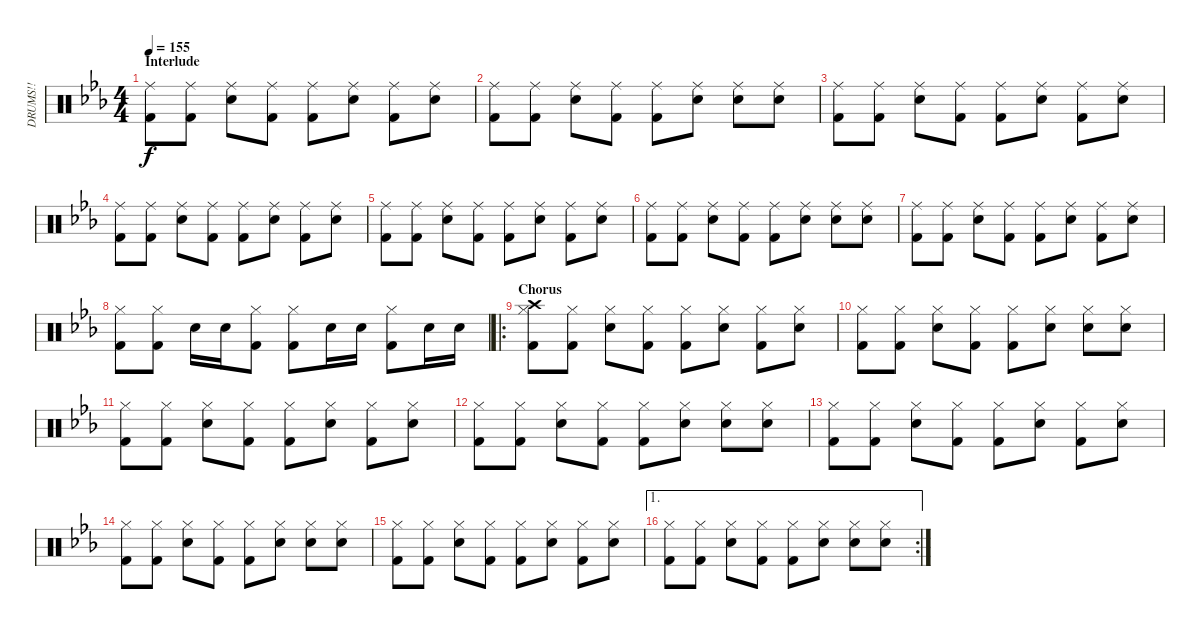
\track ("DRUMS!!" "DRUMS!!") {instrument percussion}
\staff {score}
\articulation defaults
\ts (4 4)
\section ("" "Interlude")
\tempo 155
\clef neutral
\ks cminor
("Ride (middle)" "Kick (hit) 2").8{dy f} ("Ride (middle)" "Kick (hit) 2").8 ("Ride (middle)" "Snare (hit) 2").8 ("Ride (middle)" "Kick (hit) 2").8 ("Ride (middle)" "Kick (hit) 2").8 ("Ride (middle)" "Snare (hit) 2").8 ("Ride (middle)" "Kick (hit) 2").8 ("Ride (middle)" "Snare (hit) 2").8 |
("Ride (middle)" "Kick (hit) 2").8 ("Ride (middle)" "Kick (hit) 2").8 ("Ride (middle)" "Snare (hit) 2").8 ("Ride (middle)" "Kick (hit) 2").8 ("Ride (middle)" "Kick (hit) 2").8 ("Ride (middle)" "Snare (hit) 2").8 ("Ride (middle)" "Snare (hit) 2").8 ("Ride (middle)" "Snare (hit) 2").8 |
("Ride (middle)" "Kick (hit) 2").8 ("Ride (middle)" "Kick (hit) 2").8 ("Ride (middle)" "Snare (hit) 2").8 ("Ride (middle)" "Kick (hit) 2").8 ("Ride (middle)" "Kick (hit) 2").8 ("Ride (middle)" "Snare (hit) 2").8 ("Ride (middle)" "Kick (hit) 2").8 ("Ride (middle)" "Snare (hit) 2").8 |
("Ride (middle)" "Kick (hit) 2").8 ("Ride (middle)" "Kick (hit) 2").8 ("Ride (middle)" "Snare (hit) 2").8 ("Ride (middle)" "Kick (hit) 2").8 ("Ride (middle)" "Kick (hit) 2").8 ("Ride (middle)" "Snare (hit) 2").8 ("Ride (middle)" "Kick (hit) 2").8 ("Ride (middle)" "Snare (hit) 2").8 |
("Ride (middle)" "Kick (hit) 2").8 ("Ride (middle)" "Kick (hit) 2").8 ("Ride (middle)" "Snare (hit) 2").8 ("Ride (middle)" "Kick (hit) 2").8 ("Ride (middle)" "Kick (hit) 2").8 ("Ride (middle)" "Snare (hit) 2").8 ("Ride (middle)" "Kick (hit) 2").8 ("Ride (middle)" "Snare (hit) 2").8 |
("Ride (middle)" "Kick (hit) 2").8 ("Ride (middle)" "Kick (hit) 2").8 ("Ride (middle)" "Snare (hit) 2").8 ("Ride (middle)" "Kick (hit) 2").8 ("Ride (middle)" "Kick (hit) 2").8 ("Ride (middle)" "Snare (hit) 2").8 ("Ride (middle)" "Snare (hit) 2").8 ("Ride (middle)" "Snare (hit) 2").8 |
("Ride (middle)" "Kick (hit) 2").8 ("Ride (middle)" "Kick (hit) 2").8 ("Ride (middle)" "Snare (hit) 2").8 ("Ride (middle)" "Kick (hit) 2").8 ("Ride (middle)" "Kick (hit) 2").8 ("Ride (middle)" "Snare (hit) 2").8 ("Ride (middle)" "Kick (hit) 2").8 ("Ride (middle)" "Snare (hit) 2").8 |
("Hi-Hat (closed)" "Kick (hit) 2").8 ("Hi-Hat (closed)" "Kick (hit) 2").8 "Snare (hit) 2".16 "Snare (hit) 2".16 ("Hi-Hat (closed)" "Kick (hit) 2").8 ("Hi-Hat (closed)" "Kick (hit) 2").8 "Snare (hit) 2".16 "Snare (hit) 2".16 ("Hi-Hat (closed)" "Kick (hit) 2").8 "Snare (hit) 2".16 "Snare (hit) 2".16 |
\ro
\section ("" "Chorus")
("Crash high (hit)" "Hi-Hat (closed)" "Kick (hit) 2").8 ("Hi-Hat (closed)" "Kick (hit) 2").8 ("Hi-Hat (closed)" "Snare (hit) 2").8 ("Hi-Hat (closed)" "Kick (hit) 2").8 ("Hi-Hat (closed)" "Kick (hit) 2").8 ("Hi-Hat (closed)" "Snare (hit) 2").8 ("Hi-Hat (closed)" "Kick (hit) 2").8 ("Hi-Hat (closed)" "Snare (hit) 2").8 |
("Hi-Hat (closed)" "Kick (hit) 2").8 ("Hi-Hat (closed)" "Kick (hit) 2").8 ("Hi-Hat (closed)" "Snare (hit) 2").8 ("Hi-Hat (closed)" "Kick (hit) 2").8 ("Hi-Hat (closed)" "Kick (hit) 2").8 ("Hi-Hat (closed)" "Snare (hit) 2").8 ("Hi-Hat (closed)" "Snare (hit) 2").8 ("Hi-Hat (closed)" "Snare (hit) 2").8 |
("Hi-Hat (closed)" "Kick (hit) 2").8 ("Hi-Hat (closed)" "Kick (hit) 2").8 ("Hi-Hat (closed)" "Snare (hit) 2").8 ("Hi-Hat (closed)" "Kick (hit) 2").8 ("Hi-Hat (closed)" "Kick (hit) 2").8 ("Hi-Hat (closed)" "Snare (hit) 2").8 ("Hi-Hat (closed)" "Kick (hit) 2").8 ("Hi-Hat (closed)" "Snare (hit) 2").8 |
("Hi-Hat (closed)" "Kick (hit) 2").8 ("Hi-Hat (closed)" "Kick (hit) 2").8 ("Hi-Hat (closed)" "Snare (hit) 2").8 ("Hi-Hat (closed)" "Kick (hit) 2").8 ("Hi-Hat (closed)" "Kick (hit) 2").8 ("Hi-Hat (closed)" "Snare (hit) 2").8 ("Hi-Hat (closed)" "Snare (hit) 2").8 ("Hi-Hat (closed)" "Snare (hit) 2").8 |
("Hi-Hat (closed)" "Kick (hit) 2").8 ("Hi-Hat (closed)" "Kick (hit) 2").8 ("Hi-Hat (closed)" "Snare (hit) 2").8 ("Hi-Hat (closed)" "Kick (hit) 2").8 ("Hi-Hat (closed)" "Kick (hit) 2").8 ("Hi-Hat (closed)" "Snare (hit) 2").8 ("Hi-Hat (closed)" "Kick (hit) 2").8 ("Hi-Hat (closed)" "Snare (hit) 2").8 |
("Hi-Hat (closed)" "Kick (hit) 2").8 ("Hi-Hat (closed)" "Kick (hit) 2").8 ("Hi-Hat (closed)" "Snare (hit) 2").8 ("Hi-Hat (closed)" "Kick (hit) 2").8 ("Hi-Hat (closed)" "Kick (hit) 2").8 ("Hi-Hat (closed)" "Snare (hit) 2").8 ("Hi-Hat (closed)" "Snare (hit) 2").8 ("Hi-Hat (closed)" "Snare (hit) 2").8 |
("Hi-Hat (closed)" "Kick (hit) 2").8 ("Hi-Hat (closed)" "Kick (hit) 2").8 ("Hi-Hat (closed)" "Snare (hit) 2").8 ("Hi-Hat (closed)" "Kick (hit) 2").8 ("Hi-Hat (closed)" "Kick (hit) 2").8 ("Hi-Hat (closed)" "Snare (hit) 2").8 ("Hi-Hat (closed)" "Kick (hit) 2").8 ("Hi-Hat (closed)" "Snare (hit) 2").8 |
\ae 1
\rc 2
("Hi-Hat (closed)" "Kick (hit) 2").8 ("Hi-Hat (closed)" "Kick (hit) 2").8 ("Hi-Hat (closed)" "Snare (hit) 2").8 ("Hi-Hat (closed)" "Kick (hit) 2").8 ("Hi-Hat (closed)" "Kick (hit) 2").8 ("Hi-Hat (closed)" "Snare (hit) 2").8 ("Hi-Hat (closed)" "Snare (hit) 2").8 ("Hi-Hat (closed)" "Snare (hit) 2").8
